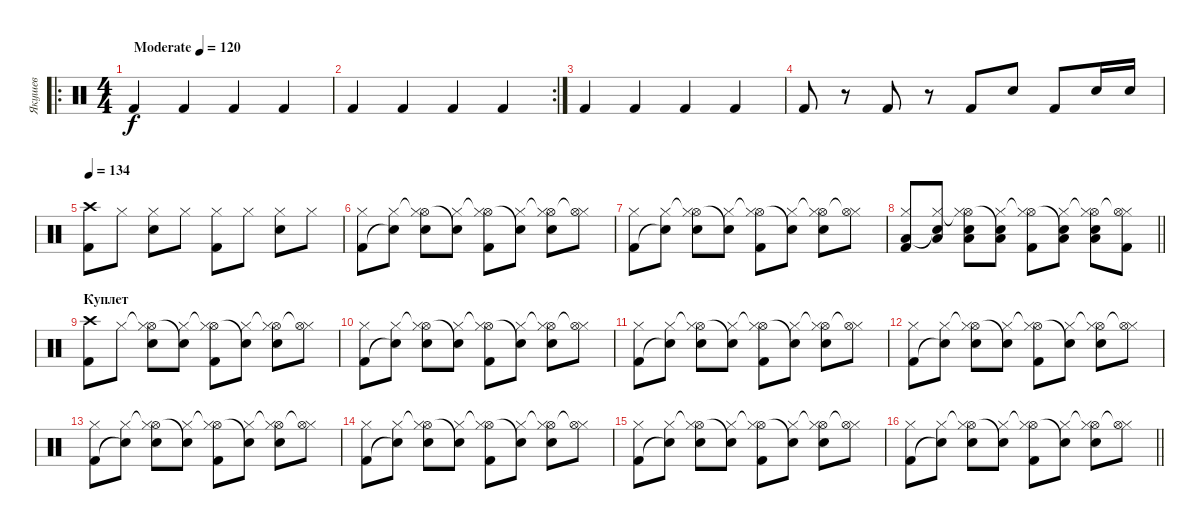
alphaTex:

\track ("Якушев" "Якушев") {instrument percussion}
\staff {score}
\articulation defaults
\ro
\ts (4 4)
\tempo (120 "Moderate")
\tempo 133
\tempo (120 "Moderate")
\clef neutral
\ks c "Kick (hit) 2".4{dy f} "Kick (hit) 2".4 "Kick (hit) 2".4 "Kick (hit) 2".4
|
\rc 2 "Kick (hit) 2".4 "Kick (hit) 2".4 "Kick (hit) 2".4 "Kick (hit) 2".4
|
"Kick (hit) 2".4 "Kick (hit) 2".4 "Kick (hit) 2".4 "Kick (hit) 2".4 |
"Kick (hit) 2".8 r.8 "Kick (hit) 2".8 r.8 "Kick (hit) 2".8 "Snare (hit) 2".8 "Kick (hit) 2".8 "Snare (hit) 2".16 "Snare (hit) 2".16 |
\tempo 134
("Crash high (hit)" "Kick (hit) 2").8 "Hi-Hat (closed)".8 ("Hi-Hat (closed)" "Snare (hit) 2").8 "Hi-Hat (closed)".8 ("Hi-Hat (closed)" "Kick (hit) 2").8 "Hi-Hat (closed)".8 ("Hi-Hat (closed)" "Snare (hit) 2").8 "Hi-Hat (closed)".8 |
("Hi-Hat (closed)" "Kick (hit) 2").8 ("Hi-Hat (closed)" "Snare (hit)"{t}).8 ("Hi-Hat (open)"{t} "Hi-Hat (closed)" "Snare (hit) 2").8 ("Hi-Hat (closed)" "Snare (hit)"{t}).8 ("Hi-Hat (open)"{t} "Hi-Hat (closed)" "Kick (hit) 2").8 ("Hi-Hat (closed)" "Snare (hit)"{t}).8 ("Hi-Hat (open)"{t} "Hi-Hat (closed)" "Snare (hit) 2").8 ("Hi-Hat (closed)" "Hi-Hat (open)"{t}).8 |
("Hi-Hat (closed)" "Kick (hit) 2").8 ("Hi-Hat (closed)" "Snare (hit)"{t}).8 ("Hi-Hat (open)"{t} "Hi-Hat (closed)" "Snare (hit) 2").8 ("Hi-Hat (closed)" "Snare (hit)"{t}).8 ("Hi-Hat (open)"{t} "Hi-Hat (closed)" "Kick (hit) 2").8 ("Hi-Hat (closed)" "Snare (hit)"{t}).8 ("Hi-Hat (open)"{t} "Hi-Hat (closed)" "Snare (hit) 2").8 ("Hi-Hat (closed)" "Hi-Hat (open)"{t}).8 |
\barLineRight lightlight
("Hi-Hat (closed)" "Low Tom (hit)" "Kick (hit) 2").8 ("Hi-Hat (closed)" "Snare (hit)"{t} "Low Tom (hit)").8 ("Hi-Hat (open)"{t} "Hi-Hat (closed)" "Snare (hit) 2" "Low Tom (hit)").8 ("Hi-Hat (closed)" "Snare (hit)"{t} "Low Tom (hit)").8 ("Hi-Hat (open)"{t} "Hi-Hat (closed)" "Kick (hit) 2").8 ("Hi-Hat (closed)" "Snare (hit)"{t} "Low Tom (hit)").8 ("Hi-Hat (open)"{t} "Hi-Hat (closed)" "Snare (hit) 2" "Low Tom (hit)").8 ("Hi-Hat (closed)" "Hi-Hat (open)"{t} "Kick (hit) 2").8 |
\section ("" "Куплет")
("Crash high (hit)" "Kick (hit) 2").8 "Hi-Hat (closed)".8 ("Hi-Hat (open)"{t} "Hi-Hat (closed)" "Snare (hit) 2").8 ("Hi-Hat (closed)" "Snare (hit)"{t}).8 ("Hi-Hat (open)"{t} "Hi-Hat (closed)" "Kick (hit) 2").8 ("Hi-Hat (closed)" "Snare (hit)"{t}).8 ("Hi-Hat (open)"{t} "Hi-Hat (closed)" "Snare (hit) 2").8 ("Hi-Hat (closed)" "Hi-Hat (open)"{t}).8 |
("Hi-Hat (closed)" "Kick (hit) 2").8 ("Hi-Hat (closed)" "Snare (hit)"{t}).8 ("Hi-Hat (open)"{t} "Hi-Hat (closed)" "Snare (hit) 2").8 ("Hi-Hat (closed)" "Snare (hit)"{t}).8 ("Hi-Hat (open)"{t} "Hi-Hat (closed)" "Kick (hit) 2").8 ("Hi-Hat (closed)" "Snare (hit)"{t}).8 ("Hi-Hat (open)"{t} "Hi-Hat (closed)" "Snare (hit) 2").8 ("Hi-Hat (closed)" "Hi-Hat (open)"{t}).8 |
("Hi-Hat (closed)" "Kick (hit) 2").8 ("Hi-Hat (closed)" "Snare (hit)"{t}).8 ("Hi-Hat (open)"{t} "Hi-Hat (closed)" "Snare (hit) 2").8 ("Hi-Hat (closed)" "Snare (hit)"{t}).8 ("Hi-Hat (open)"{t} "Hi-Hat (closed)" "Kick (hit) 2").8 ("Hi-Hat (closed)" "Snare (hit)"{t}).8 ("Hi-Hat (open)"{t} "Hi-Hat (closed)" "Snare (hit) 2").8 ("Hi-Hat (closed)" "Hi-Hat (open)"{t}).8 |
("Hi-Hat (closed)" "Kick (hit) 2").8 ("Hi-Hat (closed)" "Snare (hit)"{t}).8 ("Hi-Hat (open)"{t} "Hi-Hat (closed)" "Snare (hit) 2").8 ("Hi-Hat (closed)" "Snare (hit)"{t}).8 ("Hi-Hat (open)"{t} "Hi-Hat (closed)" "Kick (hit) 2").8 ("Hi-Hat (closed)" "Snare (hit)"{t}).8 ("Hi-Hat (open)"{t} "Hi-Hat (closed)" "Snare (hit) 2").8 ("Hi-Hat (closed)" "Hi-Hat (open)"{t}).8 |
("Hi-Hat (closed)" "Kick (hit) 2").8 ("Hi-Hat (closed)" "Snare (hit)"{t}).8 ("Hi-Hat (open)"{t} "Hi-Hat (closed)" "Snare (hit) 2").8 ("Hi-Hat (closed)" "Snare (hit)"{t}).8 ("Hi-Hat (open)"{t} "Hi-Hat (closed)" "Kick (hit) 2").8 ("Hi-Hat (closed)" "Snare (hit)"{t}).8 ("Hi-Hat (open)"{t} "Hi-Hat (closed)" "Snare (hit) 2").8 ("Hi-Hat (closed)" "Hi-Hat (open)"{t}).8 |
("Hi-Hat (closed)" "Kick (hit) 2").8 ("Hi-Hat (closed)" "Snare (hit)"{t}).8 ("Hi-Hat (open)"{t} "Hi-Hat (closed)" "Snare (hit) 2").8 ("Hi-Hat (closed)" "Snare (hit)"{t}).8 ("Hi-Hat (open)"{t} "Hi-Hat (closed)" "Kick (hit) 2").8 ("Hi-Hat (closed)" "Snare (hit)"{t}).8 ("Hi-Hat (open)"{t} "Hi-Hat (closed)" "Snare (hit) 2").8 ("Hi-Hat (closed)" "Hi-Hat (open)"{t}).8 |
("Hi-Hat (closed)" "Kick (hit) 2").8 ("Hi-Hat (closed)" "Snare (hit)"{t}).8 ("Hi-Hat (open)"{t} "Hi-Hat (closed)" "Snare (hit) 2").8 ("Hi-Hat (closed)" "Snare (hit)"{t}).8 ("Hi-Hat (open)"{t} "Hi-Hat (closed)" "Kick (hit) 2").8 ("Hi-Hat (closed)" "Snare (hit)"{t}).8 ("Hi-Hat (open)"{t} "Hi-Hat (closed)" "Snare (hit) 2").8 ("Hi-Hat (closed)" "Hi-Hat (open)"{t}).8 |
\barLineRight lightlight
("Hi-Hat (closed)" "Kick (hit) 2").8 ("Hi-Hat (closed)" "Snare (hit)"{t}).8 ("Hi-Hat (open)"{t} "Hi-Hat (closed)" "Snare (hit) 2").8 ("Hi-Hat (closed)" "Snare (hit)"{t}).8 ("Hi-Hat (open)"{t} "Hi-Hat (closed)" "Kick (hit) 2").8 ("Hi-Hat (closed)" "Snare (hit)"{t}).8 ("Hi-Hat (open)"{t} "Hi-Hat (closed)" "Snare (hit) 2").8 ("Hi-Hat (closed)" "Hi-Hat (open)"{t}).8
